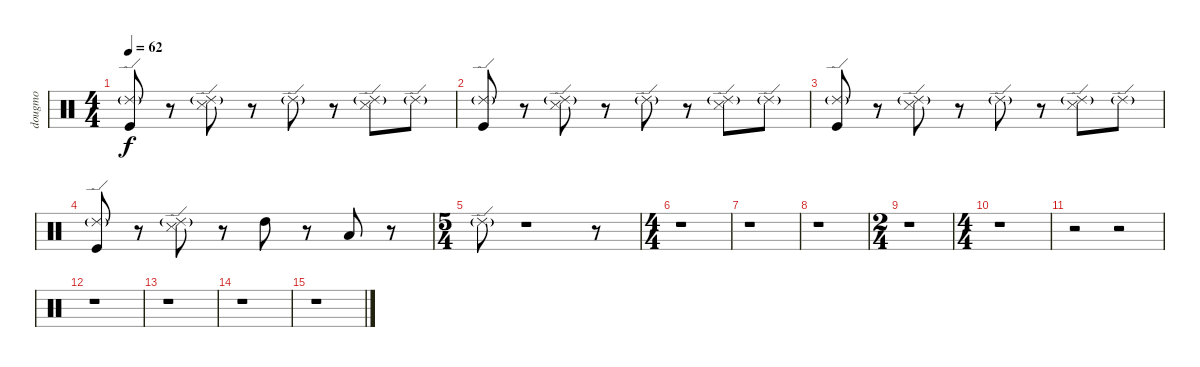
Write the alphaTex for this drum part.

\track ("dougmo" "dougmo") {instrument percussion}
\staff {score}
\articulation defaults
\ts (4 4)
\tempo 62
\clef neutral
\ks c
("Kick (hit)" "Ride (edge) 2"{g}).8{dy f} r.8 ("Snare (side stick) 3" "Ride (edge) 2"{g}).8 r.8 "Ride (edge) 2"{g}.8 r.8 ("Snare (side stick) 3" "Ride (edge) 2"{g}).8 "Ride (edge) 2"{g}.8 |
("Kick (hit)" "Ride (edge) 2"{g}).8 r.8 ("Snare (side stick) 3" "Ride (edge) 2"{g}).8 r.8 "Ride (edge) 2"{g}.8 r.8 ("Snare (side stick) 3" "Ride (edge) 2"{g}).8 "Ride (edge) 2"{g}.8 |
("Kick (hit)" "Ride (edge) 2"{g}).8 r.8 ("Snare (side stick) 3" "Ride (edge) 2"{g}).8 r.8 "Ride (edge) 2"{g}.8 r.8 ("Snare (side stick) 3" "Ride (edge) 2"{g}).8 "Ride (edge) 2"{g}.8 |
("Kick (hit)" "Ride (edge) 2"{g}).8 r.8 ("Snare (side stick) 3" "Ride (edge) 2"{g}).8 r.8 "High Tom (hit)".8 r.8 "Low Tom (hit)".8 r.8 |
\ts (5 4)
"Ride (edge) 2"{g}.8 r.1 r.8 |
\ts (4 4)
r.1 |
r.1 |
r.1 |
\ts (2 4)
r.1 |
\ts (4 4)
r.1 |
r.2 r.2 |
r.1 |
r.1 |
r.1 |
r.1
